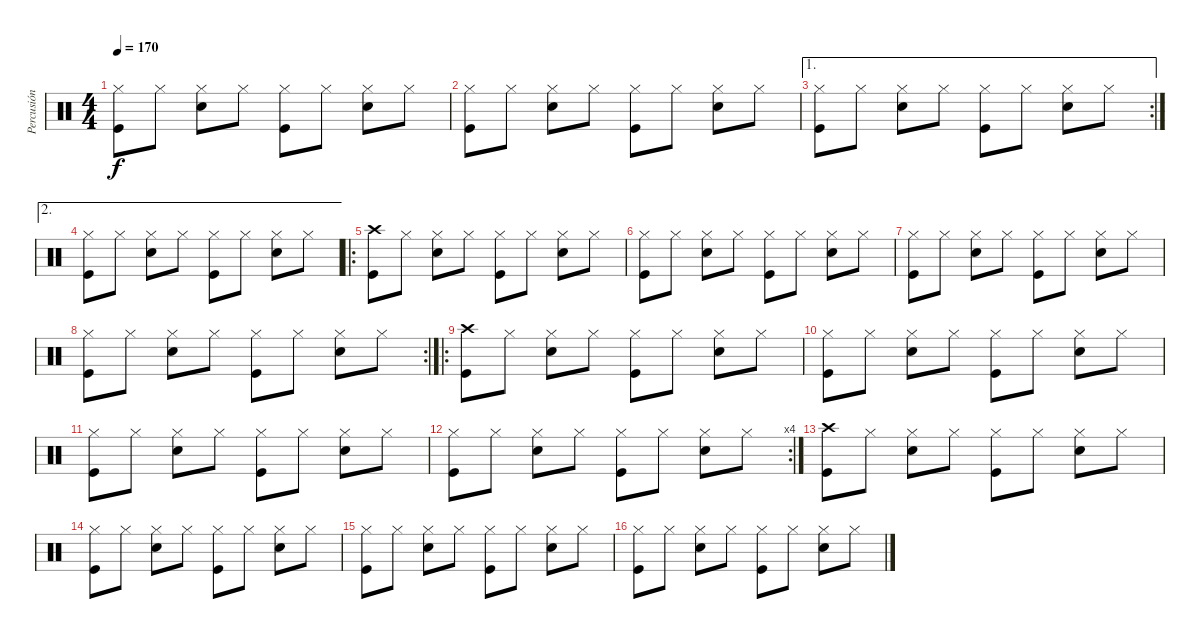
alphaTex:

\track ("Percusión" "Percusión") {instrument percussion}
\staff {score}
\articulation defaults
\ts (4 4)
\tempo 170
\clef neutral
\ks c
("Kick (hit)" "Hi-Hat (closed)").8{dy f} "Hi-Hat (closed)".8 ("Snare (hit) 2" "Hi-Hat (closed)").8 "Hi-Hat (closed)".8 ("Kick (hit)" "Hi-Hat (closed)").8 "Hi-Hat (closed)".8 ("Snare (hit) 2" "Hi-Hat (closed)").8 "Hi-Hat (closed)".8 |
("Kick (hit)" "Hi-Hat (closed)").8 "Hi-Hat (closed)".8 ("Snare (hit) 2" "Hi-Hat (closed)").8 "Hi-Hat (closed)".8 ("Kick (hit)" "Hi-Hat (closed)").8 "Hi-Hat (closed)".8 ("Snare (hit) 2" "Hi-Hat (closed)").8 "Hi-Hat (closed)".8 |
\ae 1
\rc 2
("Kick (hit)" "Hi-Hat (closed)").8 "Hi-Hat (closed)".8 ("Snare (hit) 2" "Hi-Hat (closed)").8 "Hi-Hat (closed)".8 ("Kick (hit)" "Hi-Hat (closed)").8 "Hi-Hat (closed)".8 ("Snare (hit) 2" "Hi-Hat (closed)").8 "Hi-Hat (closed)".8 |
\ae 2
("Kick (hit)" "Hi-Hat (closed)").8 "Hi-Hat (closed)".8 ("Snare (hit) 2" "Hi-Hat (closed)").8 "Hi-Hat (closed)".8 ("Kick (hit)" "Hi-Hat (closed)").8 "Hi-Hat (closed)".8 ("Snare (hit) 2" "Hi-Hat (closed)").8 "Hi-Hat (closed)".8 |
\ro
("Kick (hit)" "Crash high (hit)").8 "Hi-Hat (closed)".8 ("Snare (hit) 2" "Hi-Hat (closed)").8 "Hi-Hat (closed)".8 ("Kick (hit)" "Hi-Hat (closed)").8 "Hi-Hat (closed)".8 ("Snare (hit) 2" "Hi-Hat (closed)").8 "Hi-Hat (closed)".8 |
("Kick (hit)" "Hi-Hat (closed)").8 "Hi-Hat (closed)".8 ("Snare (hit) 2" "Hi-Hat (closed)").8 "Hi-Hat (closed)".8 ("Kick (hit)" "Hi-Hat (closed)").8 "Hi-Hat (closed)".8 ("Snare (hit) 2" "Hi-Hat (closed)").8 "Hi-Hat (closed)".8 |
("Kick (hit)" "Hi-Hat (closed)").8 "Hi-Hat (closed)".8 ("Snare (hit) 2" "Hi-Hat (closed)").8 "Hi-Hat (closed)".8 ("Kick (hit)" "Hi-Hat (closed)").8 "Hi-Hat (closed)".8 ("Snare (hit) 2" "Hi-Hat (closed)").8 "Hi-Hat (closed)".8 |
\rc 2
("Kick (hit)" "Hi-Hat (closed)").8 "Hi-Hat (closed)".8 ("Snare (hit) 2" "Hi-Hat (closed)").8 "Hi-Hat (closed)".8 ("Kick (hit)" "Hi-Hat (closed)").8 "Hi-Hat (closed)".8 ("Snare (hit) 2" "Hi-Hat (closed)").8 "Hi-Hat (closed)".8 |
\ro
("Kick (hit)" "Crash high (hit)").8 "Hi-Hat (closed)".8 ("Snare (hit) 2" "Hi-Hat (closed)").8 "Hi-Hat (closed)".8 ("Kick (hit)" "Hi-Hat (closed)").8 "Hi-Hat (closed)".8 ("Snare (hit) 2" "Hi-Hat (closed)").8 "Hi-Hat (closed)".8 |
("Kick (hit)" "Hi-Hat (closed)").8 "Hi-Hat (closed)".8 ("Snare (hit) 2" "Hi-Hat (closed)").8 "Hi-Hat (closed)".8 ("Kick (hit)" "Hi-Hat (closed)").8 "Hi-Hat (closed)".8 ("Snare (hit) 2" "Hi-Hat (closed)").8 "Hi-Hat (closed)".8 |
("Kick (hit)" "Hi-Hat (closed)").8 "Hi-Hat (closed)".8 ("Snare (hit) 2" "Hi-Hat (closed)").8 "Hi-Hat (closed)".8 ("Kick (hit)" "Hi-Hat (closed)").8 "Hi-Hat (closed)".8 ("Snare (hit) 2" "Hi-Hat (closed)").8 "Hi-Hat (closed)".8 |
\rc 4
("Kick (hit)" "Hi-Hat (closed)").8 "Hi-Hat (closed)".8 ("Snare (hit) 2" "Hi-Hat (closed)").8 "Hi-Hat (closed)".8 ("Kick (hit)" "Hi-Hat (closed)").8 "Hi-Hat (closed)".8 ("Snare (hit) 2" "Hi-Hat (closed)").8 "Hi-Hat (closed)".8 |
("Kick (hit)" "Crash high (hit)").8 "Hi-Hat (closed)".8 ("Snare (hit) 2" "Hi-Hat (closed)").8 "Hi-Hat (closed)".8 ("Kick (hit)" "Hi-Hat (closed)").8 "Hi-Hat (closed)".8 ("Snare (hit) 2" "Hi-Hat (closed)").8 "Hi-Hat (closed)".8 |
("Kick (hit)" "Hi-Hat (closed)").8 "Hi-Hat (closed)".8 ("Snare (hit) 2" "Hi-Hat (closed)").8 "Hi-Hat (closed)".8 ("Kick (hit)" "Hi-Hat (closed)").8 "Hi-Hat (closed)".8 ("Snare (hit) 2" "Hi-Hat (closed)").8 "Hi-Hat (closed)".8 |
("Kick (hit)" "Hi-Hat (closed)").8 "Hi-Hat (closed)".8 ("Snare (hit) 2" "Hi-Hat (closed)").8 "Hi-Hat (closed)".8 ("Kick (hit)" "Hi-Hat (closed)").8 "Hi-Hat (closed)".8 ("Snare (hit) 2" "Hi-Hat (closed)").8 "Hi-Hat (closed)".8 |
("Kick (hit)" "Hi-Hat (closed)").8 "Hi-Hat (closed)".8 ("Snare (hit) 2" "Hi-Hat (closed)").8 "Hi-Hat (closed)".8 ("Kick (hit)" "Hi-Hat (closed)").8 "Hi-Hat (closed)".8 ("Snare (hit) 2" "Hi-Hat (closed)").8 "Hi-Hat (closed)".8
